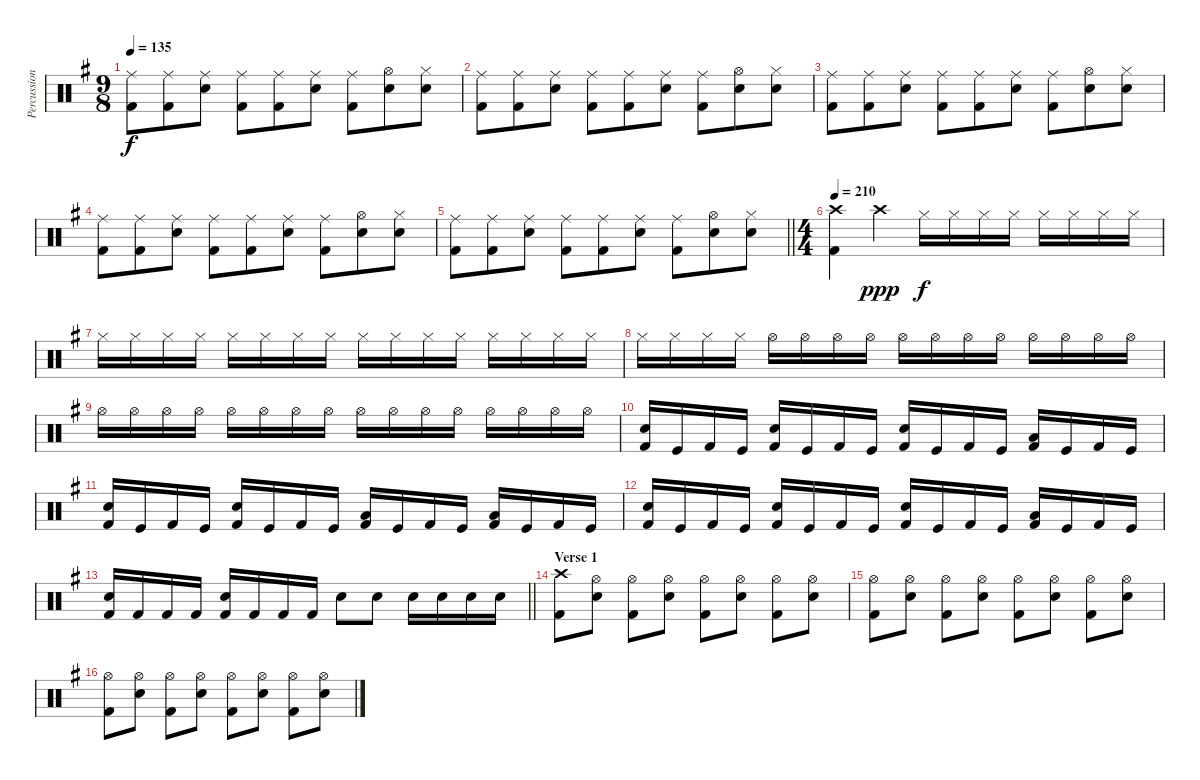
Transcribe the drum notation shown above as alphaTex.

\track ("Percussion" "Percussion") {instrument percussion}
\staff {score}
\articulation defaults
\ts (9 8)
\tempo 135
\clef neutral
\ks eminor
("Ride (middle)" "Kick (hit) 2").8{dy f} ("Ride (middle)" "Kick (hit) 2").8 ("Ride (middle)" "Snare (hit) 2").8 ("Ride (middle)" "Kick (hit) 2").8 ("Ride (middle)" "Kick (hit) 2").8 ("Ride (middle)" "Snare (hit) 2").8 ("Ride (middle)" "Kick (hit) 2").8 ("Hi-Hat (open)" "Snare (hit) 2").8 ("Hi-Hat (closed)" "Snare (hit) 2").8 |
("Ride (middle)" "Kick (hit) 2").8 ("Ride (middle)" "Kick (hit) 2").8 ("Ride (middle)" "Snare (hit) 2").8 ("Ride (middle)" "Kick (hit) 2").8 ("Ride (middle)" "Kick (hit) 2").8 ("Ride (middle)" "Snare (hit) 2").8 ("Ride (middle)" "Kick (hit) 2").8 ("Hi-Hat (open)" "Snare (hit) 2").8 ("Hi-Hat (closed)" "Snare (hit) 2").8 |
("Ride (middle)" "Kick (hit) 2").8 ("Ride (middle)" "Kick (hit) 2").8 ("Ride (middle)" "Snare (hit) 2").8 ("Ride (middle)" "Kick (hit) 2").8 ("Ride (middle)" "Kick (hit) 2").8 ("Ride (middle)" "Snare (hit) 2").8 ("Ride (middle)" "Kick (hit) 2").8 ("Hi-Hat (open)" "Snare (hit) 2").8 ("Hi-Hat (closed)" "Snare (hit) 2").8 |
("Ride (middle)" "Kick (hit) 2").8 ("Ride (middle)" "Kick (hit) 2").8 ("Ride (middle)" "Snare (hit) 2").8 ("Ride (middle)" "Kick (hit) 2").8 ("Ride (middle)" "Kick (hit) 2").8 ("Ride (middle)" "Snare (hit) 2").8 ("Ride (middle)" "Kick (hit) 2").8 ("Hi-Hat (open)" "Snare (hit) 2").8 ("Hi-Hat (closed)" "Snare (hit) 2").8 |
\barLineRight lightlight
("Ride (middle)" "Kick (hit) 2").8 ("Ride (middle)" "Kick (hit) 2").8 ("Ride (middle)" "Snare (hit) 2").8 ("Ride (middle)" "Kick (hit) 2").8 ("Ride (middle)" "Kick (hit) 2").8 ("Ride (middle)" "Snare (hit) 2").8 ("Ride (middle)" "Kick (hit) 2").8 ("Hi-Hat (open)" "Snare (hit) 2").8 ("Hi-Hat (closed)" "Snare (hit) 2").8 |
\ts (4 4)
\tempo 210
("Crash high (hit)" "Kick (hit) 2").4 "Crash high (hit)".4{dy ppp} "Hi-Hat (closed)".16{dy f} "Hi-Hat (closed)".16 "Hi-Hat (closed)".16 "Hi-Hat (closed)".16 "Hi-Hat (closed)".16 "Hi-Hat (closed)".16 "Hi-Hat (closed)".16 "Hi-Hat (closed)".16 |
"Hi-Hat (closed)".16 "Hi-Hat (closed)".16 "Hi-Hat (closed)".16 "Hi-Hat (closed)".16 "Hi-Hat (closed)".16 "Hi-Hat (closed)".16 "Hi-Hat (closed)".16 "Hi-Hat (closed)".16 "Hi-Hat (closed)".16 "Hi-Hat (closed)".16 "Hi-Hat (closed)".16 "Hi-Hat (closed)".16 "Hi-Hat (closed)".16 "Hi-Hat (closed)".16 "Hi-Hat (closed)".16 "Hi-Hat (closed)".16 |
"Hi-Hat (closed)".16 "Hi-Hat (closed)".16 "Hi-Hat (closed)".16 "Hi-Hat (closed)".16 "Hi-Hat (open)".16 "Hi-Hat (open)".16 "Hi-Hat (open)".16 "Hi-Hat (open)".16 "Hi-Hat (open)".16 "Hi-Hat (open)".16 "Hi-Hat (open)".16 "Hi-Hat (open)".16 "Hi-Hat (open)".16 "Hi-Hat (open)".16 "Hi-Hat (open)".16 "Hi-Hat (open)".16 |
"Hi-Hat (open)".16 "Hi-Hat (open)".16 "Hi-Hat (open)".16 "Hi-Hat (open)".16 "Hi-Hat (open)".16 "Hi-Hat (open)".16 "Hi-Hat (open)".16 "Hi-Hat (open)".16 "Hi-Hat (open)".16 "Hi-Hat (open)".16 "Hi-Hat (open)".16 "Hi-Hat (open)".16 "Hi-Hat (open)".16 "Hi-Hat (open)".16 "Hi-Hat (open)".16 "Hi-Hat (open)".16 |
("Snare (hit) 2" "Kick (hit) 2").16 "Kick (hit)".16 "Kick (hit) 2".16 "Kick (hit)".16 ("Snare (hit) 2" "Kick (hit) 2").16 "Kick (hit)".16 "Kick (hit) 2".16 "Kick (hit)".16 ("Snare (hit) 2" "Kick (hit) 2").16 "Kick (hit)".16 "Kick (hit) 2".16 "Kick (hit)".16 ("Low Tom (hit)" "Kick (hit) 2").16 "Kick (hit)".16 "Kick (hit) 2".16 "Kick (hit)".16 |
("Snare (hit) 2" "Kick (hit) 2").16 "Kick (hit)".16 "Kick (hit) 2".16 "Kick (hit)".16 ("Snare (hit) 2" "Kick (hit) 2").16 "Kick (hit)".16 "Kick (hit) 2".16 "Kick (hit)".16 ("Low Tom (hit)" "Kick (hit) 2").16 "Kick (hit)".16 "Kick (hit) 2".16 "Kick (hit)".16 ("Low Tom (hit)" "Kick (hit) 2").16 "Kick (hit)".16 "Kick (hit) 2".16 "Kick (hit)".16 |
("Snare (hit) 2" "Kick (hit) 2").16 "Kick (hit)".16 "Kick (hit) 2".16 "Kick (hit)".16 ("Snare (hit) 2" "Kick (hit) 2").16 "Kick (hit)".16 "Kick (hit) 2".16 "Kick (hit)".16 ("Snare (hit) 2" "Kick (hit) 2").16 "Kick (hit)".16 "Kick (hit) 2".16 "Kick (hit)".16 ("Low Tom (hit)" "Kick (hit) 2").16 "Kick (hit)".16 "Kick (hit) 2".16 "Kick (hit)".16 |
\barLineRight lightlight
("Snare (hit) 2" "Kick (hit) 2").16 "Kick (hit) 2".16 "Kick (hit) 2".16 "Kick (hit) 2".16 ("Snare (hit) 2" "Kick (hit) 2").16 "Kick (hit) 2".16 "Kick (hit) 2".16 "Kick (hit) 2".16 "Snare (hit) 2".8 "Snare (hit) 2".8 "Snare (hit) 2".16 "Snare (hit) 2".16 "Snare (hit) 2".16 "Snare (hit) 2".16 |
\section ("" "Verse 1")
("Crash high (hit)" "Kick (hit) 2").8 ("Hi-Hat (open)" "Snare (hit) 2").8 ("Hi-Hat (open)" "Kick (hit) 2").8 ("Hi-Hat (open)" "Snare (hit) 2").8 ("Hi-Hat (open)" "Kick (hit) 2").8 ("Hi-Hat (open)" "Snare (hit) 2").8 ("Hi-Hat (open)" "Kick (hit) 2").8 ("Hi-Hat (open)" "Snare (hit) 2").8 |
("Hi-Hat (open)" "Kick (hit) 2").8 ("Hi-Hat (open)" "Snare (hit) 2").8 ("Hi-Hat (open)" "Kick (hit) 2").8 ("Hi-Hat (open)" "Snare (hit) 2").8 ("Hi-Hat (open)" "Kick (hit) 2").8 ("Hi-Hat (open)" "Snare (hit) 2").8 ("Hi-Hat (open)" "Kick (hit) 2").8 ("Hi-Hat (open)" "Snare (hit) 2").8 |
("Hi-Hat (open)" "Kick (hit) 2").8 ("Hi-Hat (open)" "Snare (hit) 2").8 ("Hi-Hat (open)" "Kick (hit) 2").8 ("Hi-Hat (open)" "Snare (hit) 2").8 ("Hi-Hat (open)" "Kick (hit) 2").8 ("Hi-Hat (open)" "Snare (hit) 2").8 ("Hi-Hat (open)" "Kick (hit) 2").8 ("Hi-Hat (open)" "Snare (hit) 2").8
